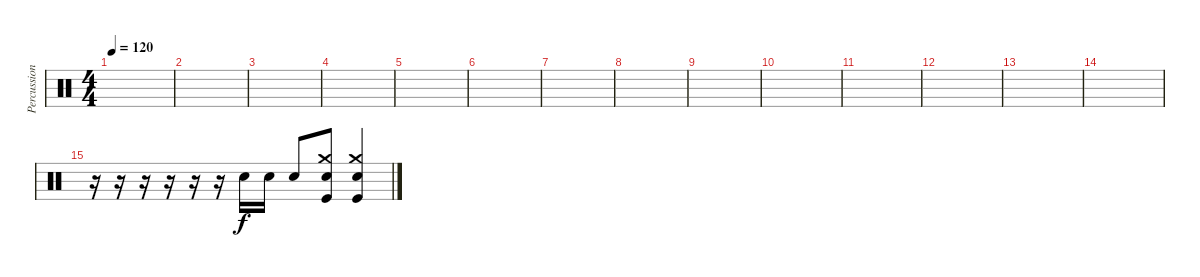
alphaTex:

\track ("Percussion" "Percussion") {instrument percussion}
\staff {score}
\articulation defaults
\ts (4 4)
\tempo 120
\clef neutral
\ks c
|
|
|
|
|
|
|
|
|
|
|
|
|
|
r.16 r.16 r.16 r.16 r.16 r.16 "Snare (hit) 2".16 "Snare (hit) 2".16 "Snare (hit) 2".8 ("Crash medium (hit)" "Snare (hit) 2" "Kick (hit)").8 ("Crash medium (hit)" "Snare (hit) 2" "Kick (hit)").4
